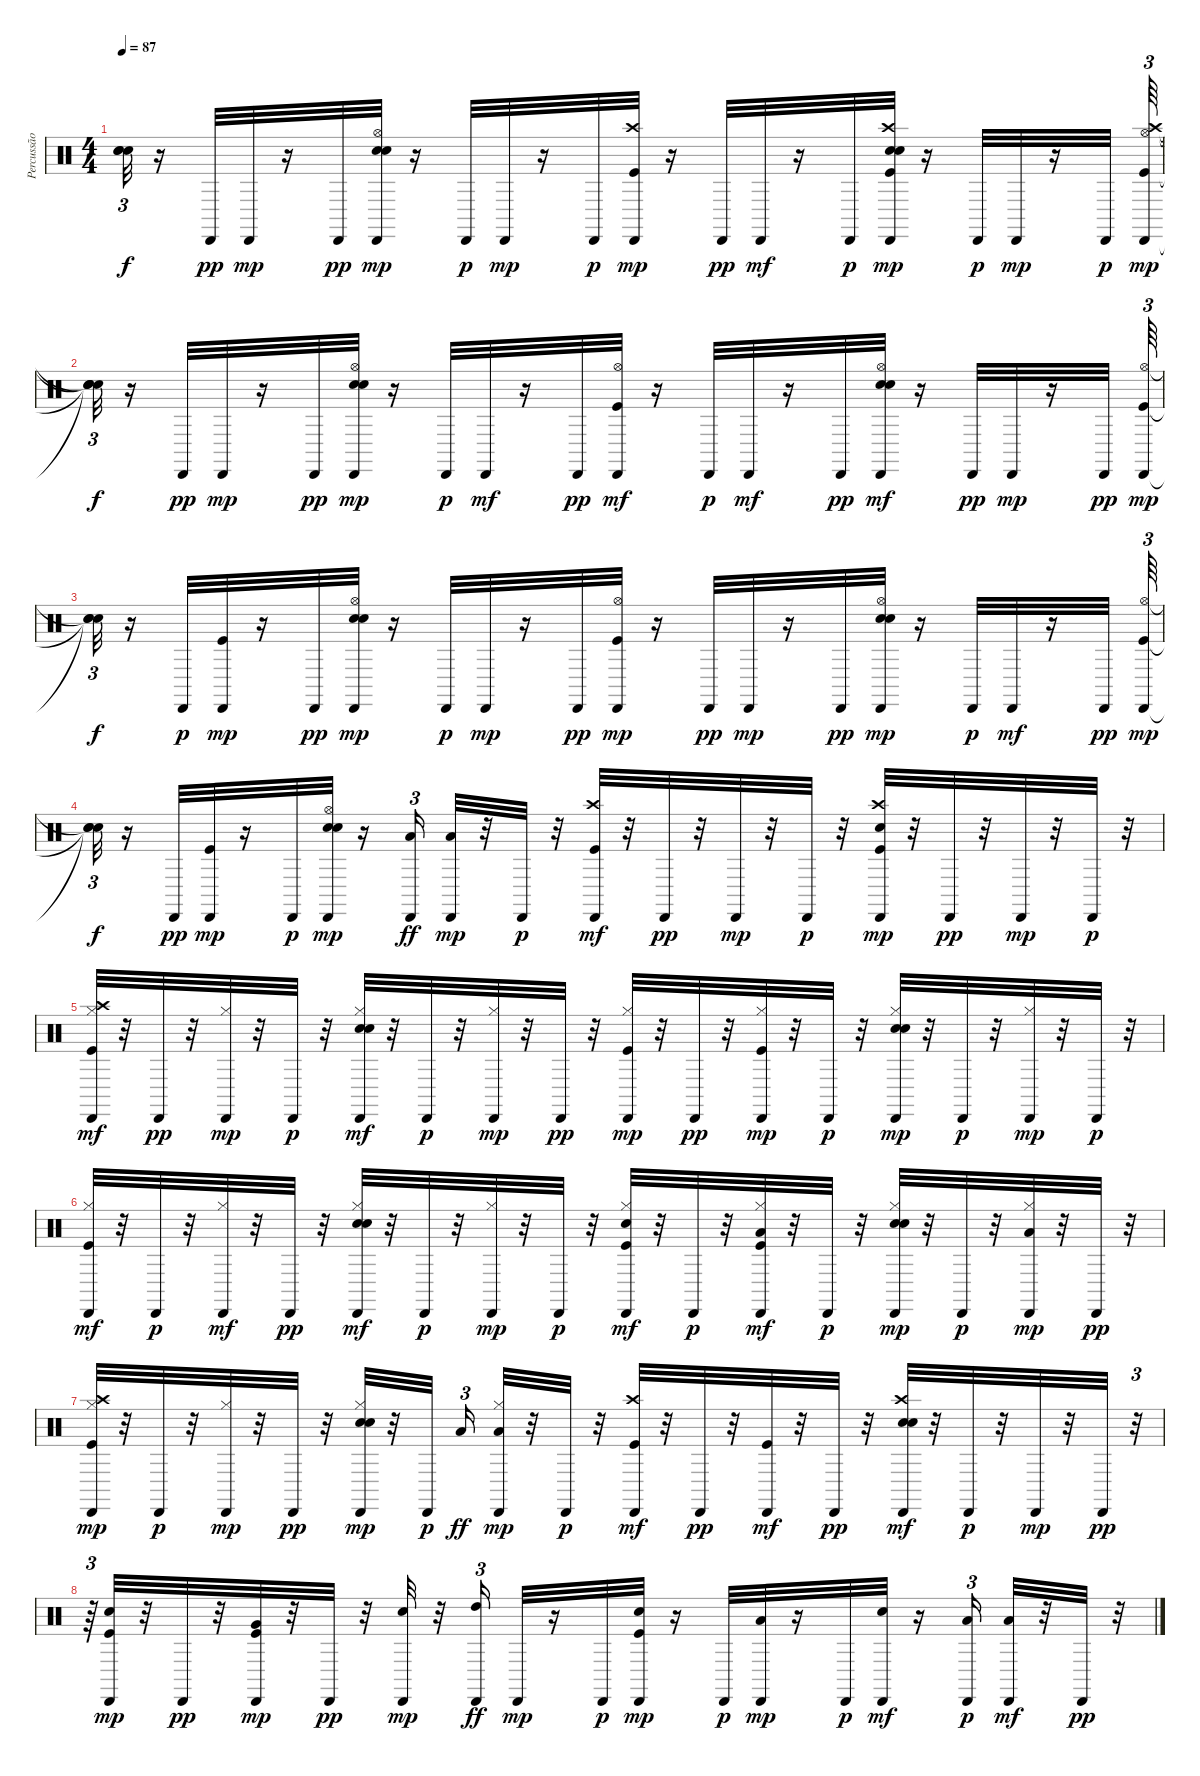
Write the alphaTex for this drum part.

\track ("Percussão" "Percussão") {instrument percussion}
\staff {score}
\articulation defaults
\ts (4 4)
\tempo 87
\clef neutral
\ks c
("Snare (hit)"{t} "Snare (hit)"{t} "Snare (hit)"{t}).32{tu (3 2) dy f} r.16 "Cabasa (hit)".32{dy pp} "Cabasa (hit)".32{dy mp} r.16 "Cabasa (hit)".32{dy pp} ("Electric Snare (hit)" "Hi-Hat (open)" "Hand Clap (hit)" "Cabasa (hit)").32{dy mp} r.16 "Cabasa (hit)".32{dy p} "Cabasa (hit)".32{dy mp} r.16 "Cabasa (hit)".32{dy p} ("Kick (hit)" "Crash high (hit)" "Cabasa (hit)").32{dy mp} r.16 "Cabasa (hit)".32{dy pp} "Cabasa (hit)".32{dy mf} r.16 "Cabasa (hit)".32{dy p} ("Kick (hit)" "Electric Snare (hit)" "Crash high (hit)" "Hand Clap (hit)" "Cabasa (hit)").32{dy mp} r.16 "Cabasa (hit)".32{dy p} "Cabasa (hit)".32{dy mp} r.16 "Cabasa (hit)".32{dy p} ("Kick (hit)" "Hi-Hat (open)" "Crash high (hit)" "Cabasa (hit)").64{tu (3 2) dy mp} |
("Snare (hit)"{t} "Snare (hit)"{t} "Snare (hit)"{t} "Snare (hit)"{t}).32{tu (3 2) dy f} r.16 "Cabasa (hit)".32{dy pp} "Cabasa (hit)".32{dy mp} r.16 "Cabasa (hit)".32{dy pp} ("Electric Snare (hit)" "Hi-Hat (open)" "Hand Clap (hit)" "Cabasa (hit)").32{dy mp} r.16 "Cabasa (hit)".32{dy p} "Cabasa (hit)".32{dy mf} r.16 "Cabasa (hit)".32{dy pp} ("Kick (hit)" "Hi-Hat (open)" "Cabasa (hit)").32{dy mf} r.16 "Cabasa (hit)".32{dy p} "Cabasa (hit)".32{dy mf} r.16 "Cabasa (hit)".32{dy pp} ("Electric Snare (hit)" "Hi-Hat (open)" "Hand Clap (hit)" "Cabasa (hit)").32{dy mf} r.16 "Cabasa (hit)".32{dy pp} "Cabasa (hit)".32{dy mp} r.16 "Cabasa (hit)".32{dy pp} ("Kick (hit)" "Hi-Hat (open)" "Cabasa (hit)").64{tu (3 2) dy mp} |
("Snare (hit)"{t} "Snare (hit)"{t} "Snare (hit)"{t}).32{tu (3 2) dy f} r.16 "Cabasa (hit)".32{dy p} ("Kick (hit)" "Cabasa (hit)").32{dy mp} r.16 "Cabasa (hit)".32{dy pp} ("Electric Snare (hit)" "Hi-Hat (open)" "Hand Clap (hit)" "Cabasa (hit)").32{dy mp} r.16 "Cabasa (hit)".32{dy p} "Cabasa (hit)".32{dy mp} r.16 "Cabasa (hit)".32{dy pp} ("Kick (hit)" "Hi-Hat (open)" "Cabasa (hit)").32{dy mp} r.16 "Cabasa (hit)".32{dy pp} "Cabasa (hit)".32{dy mp} r.16 "Cabasa (hit)".32{dy pp} ("Electric Snare (hit)" "Hi-Hat (open)" "Hand Clap (hit)" "Cabasa (hit)").32{dy mp} r.16 "Cabasa (hit)".32{dy p} "Cabasa (hit)".32{dy mf} r.16 "Cabasa (hit)".32{dy pp} ("Kick (hit)" "Hi-Hat (open)" "Cabasa (hit)").64{tu (3 2) dy mp} |
("Snare (hit)"{t} "Snare (hit)"{t} "Snare (hit)"{t}).32{tu (3 2) dy f} r.16 "Cabasa (hit)".32{dy pp} ("Kick (hit)" "Cabasa (hit)").32{dy mp} r.16 "Cabasa (hit)".32{dy p} ("Electric Snare (hit)" "Hi-Hat (open)" "Hand Clap (hit)" "Cabasa (hit)").32{dy mp} r.16 ("Cabasa (hit)" "Low Tom (hit)").16{tu (3 2) dy ff} ("Low Tom (hit)" "Cabasa (hit)").32{dy mp} r.32 "Cabasa (hit)".32{dy p} r.32 ("Kick (hit)" "Crash high (hit)" "Cabasa (hit)").32{dy mf} r.32 "Cabasa (hit)".32{dy pp} r.32 "Cabasa (hit)".32{dy mp} r.32 "Cabasa (hit)".32{dy p} r.32 ("Kick (hit)" "Electric Snare (hit)" "Crash high (hit)" "Cabasa (hit)").32{dy mp} r.32 "Cabasa (hit)".32{dy pp} r.32 "Cabasa (hit)".32{dy mp} r.32 "Cabasa (hit)".32{dy p} r.32 |
("Kick (hit)" "Hi-Hat (closed)" "Crash high (hit)" "Cabasa (hit)").32{dy mf} r.32 "Cabasa (hit)".32{dy pp} r.32 ("Hi-Hat (closed)" "Cabasa (hit)").32{dy mp} r.32 "Cabasa (hit)".32{dy p} r.32 ("Electric Snare (hit)" "Hi-Hat (closed)" "Hand Clap (hit)" "Cabasa (hit)").32{dy mf} r.32 "Cabasa (hit)".32{dy p} r.32 ("Hi-Hat (closed)" "Cabasa (hit)").32{dy mp} r.32 "Cabasa (hit)".32{dy pp} r.32 ("Kick (hit)" "Hi-Hat (closed)" "Cabasa (hit)").32{dy mp} r.32 "Cabasa (hit)".32{dy pp} r.32 ("Kick (hit)" "Hi-Hat (closed)" "Cabasa (hit)").32{dy mp} r.32 "Cabasa (hit)".32{dy p} r.32 ("Electric Snare (hit)" "Hi-Hat (closed)" "Hand Clap (hit)" "Cabasa (hit)").32{dy mp} r.32 "Cabasa (hit)".32{dy p} r.32 ("Hi-Hat (closed)" "Cabasa (hit)").32{dy mp} r.32 "Cabasa (hit)".32{dy p} r.32 |
("Kick (hit)" "Hi-Hat (closed)" "Cabasa (hit)").32{dy mf} r.32 "Cabasa (hit)".32{dy p} r.32 ("Hi-Hat (closed)" "Cabasa (hit)").32{dy mf} r.32 "Cabasa (hit)".32{dy pp} r.32 ("Electric Snare (hit)" "Hi-Hat (closed)" "Hand Clap (hit)" "Cabasa (hit)").32{dy mf} r.32 "Cabasa (hit)".32{dy p} r.32 ("Hi-Hat (closed)" "Cabasa (hit)").32{dy mp} r.32 "Cabasa (hit)".32{dy p} r.32 ("Kick (hit)" "Electric Snare (hit)" "Hi-Hat (closed)" "Cabasa (hit)").32{dy mf} r.32 "Cabasa (hit)".32{dy p} r.32 ("Kick (hit)" "Hi-Hat (closed)" "Low Tom (hit)" "Cabasa (hit)").32{dy mf} r.32 "Cabasa (hit)".32{dy p} r.32 ("Electric Snare (hit)" "Hi-Hat (closed)" "Hand Clap (hit)" "Cabasa (hit)").32{dy mp} r.32 "Cabasa (hit)".32{dy p} r.32 ("Hi-Hat (closed)" "Low Tom (hit)" "Cabasa (hit)").32{dy mp} r.32 "Cabasa (hit)".32{dy pp} r.32 |
("Kick (hit)" "Hi-Hat (closed)" "Crash high (hit)" "Cabasa (hit)").32{dy mp} r.32 "Cabasa (hit)".32{dy p} r.32 ("Hi-Hat (closed)" "Cabasa (hit)").32{dy mp} r.32 "Cabasa (hit)".32{dy pp} r.32 ("Electric Snare (hit)" "Hi-Hat (closed)" "Hand Clap (hit)" "Cabasa (hit)").32{dy mp} r.32 "Cabasa (hit)".32{dy p beam splitsecondary} "Low Tom (hit)".16{tu (3 2) dy ff} ("Hi-Hat (closed)" "Low Tom (hit)" "Cabasa (hit)").32{dy mp} r.32 "Cabasa (hit)".32{dy p} r.32 ("Kick (hit)" "Crash high (hit)" "Cabasa (hit)").32{dy mf} r.32 "Cabasa (hit)".32{dy pp} r.32 ("Kick (hit)" "Cabasa (hit)").32{dy mf} r.32 "Cabasa (hit)".32{dy pp} r.32 ("Electric Snare (hit)" "Crash high (hit)" "Hand Clap (hit)" "Cabasa (hit)").32{dy mf} r.32 "Cabasa (hit)".32{dy p} r.32 "Cabasa (hit)".32{dy mp} r.32 "Cabasa (hit)".32{dy pp} r.32{tu (3 2)} |
r.64{tu (3 2)} ("Kick (hit)" "Electric Snare (hit)" "Cabasa (hit)").32{dy mp} r.32 "Cabasa (hit)".32{dy pp} r.32 ("Kick (hit)" "Very Low Tom (hit)" "Cabasa (hit)").32{dy mp} r.32 "Cabasa (hit)".32{dy pp} r.32 ("Electric Snare (hit)" "Cabasa (hit)").32{dy mp} r.32 ("Cabasa (hit)" "High Tom (hit)").16{tu (3 2) dy ff} "Cabasa (hit)".32{dy mp} r.16 "Cabasa (hit)".32{dy p} ("Kick (hit)" "Electric Snare (hit)" "Cabasa (hit)").32{dy mp} r.16 "Cabasa (hit)".32{dy p} ("Low Tom (hit)" "Cabasa (hit)").32{dy mp} r.16 "Cabasa (hit)".32{dy p} ("Electric Snare (hit)" "Cabasa (hit)").32{dy mf} r.16 ("Cabasa (hit)" "Low Tom (hit)").16{tu (3 2) dy p} ("Low Tom (hit)" "Cabasa (hit)").32{dy mf} r.32 "Cabasa (hit)".32{dy pp} r.32
